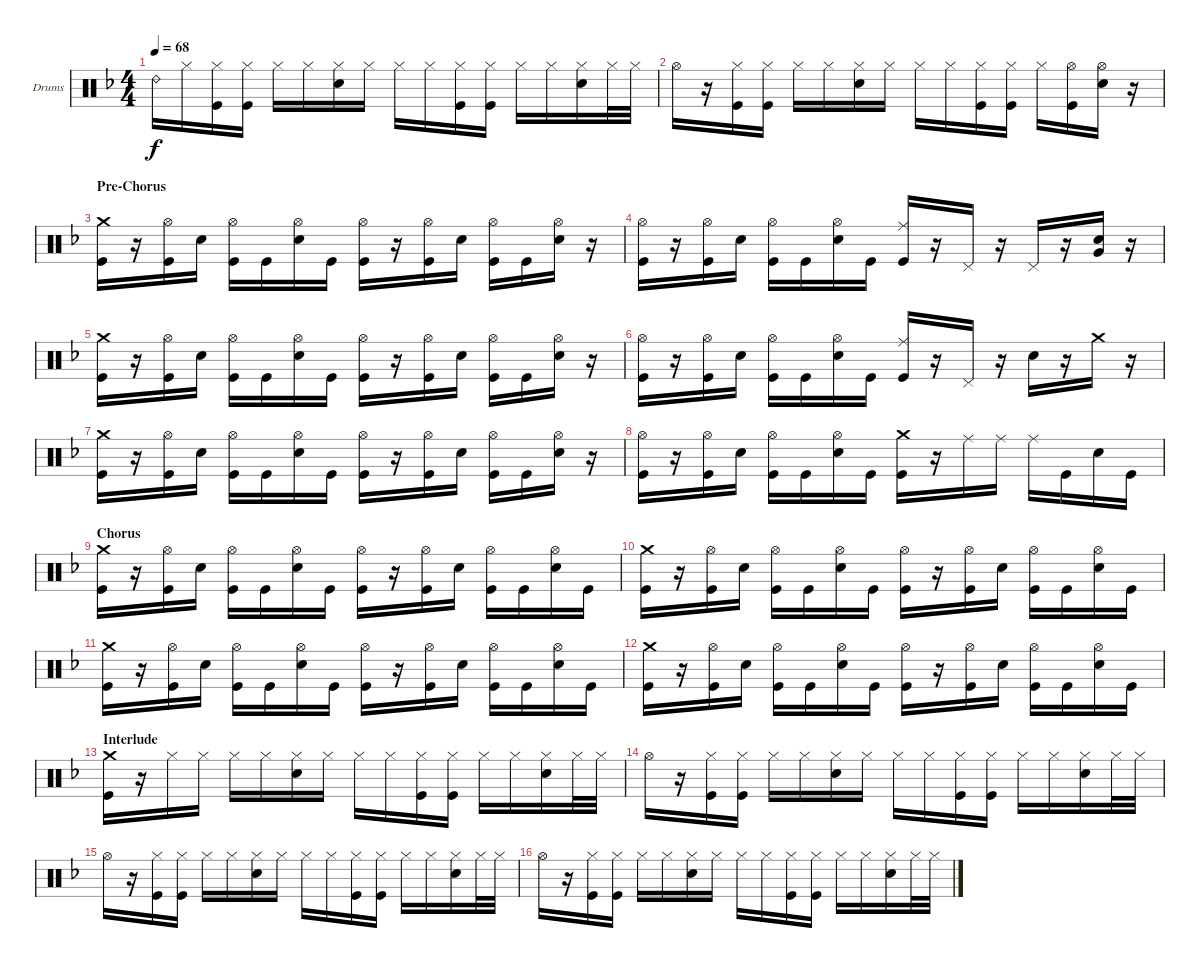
\defaultSystemsLayout 4
\bracketExtendMode groupsimilarinstruments
\firstSystemTrackNameOrientation horizontal
\otherSystemsTrackNameOrientation horizontal
\track ("Drumkit" "Drums") {instrument percussion}
\staff {score}
\articulation defaults
\ts (4 4)
\tempo 68
\clef neutral
\ks f "Ride (bell) 2".16{dy f} "Hi-Hat (closed)".16
("Hi-Hat (closed)" "Kick (hit)").16 ("Hi-Hat (closed)" "Kick (hit)").16 "Hi-Hat (closed)".16 "Hi-Hat (closed)".16 ("Hi-Hat (closed)" "Snare (hit) 2").16 "Hi-Hat (closed)".16 "Hi-Hat (closed)".16 "Hi-Hat (closed)".16 ("Hi-Hat (closed)" "Kick (hit)").16 ("Hi-Hat (closed)" "Kick (hit)").16 "Hi-Hat (closed)".16 "Hi-Hat (closed)".16 ("Hi-Hat (closed)" "Snare (hit) 2").16 "Hi-Hat (closed)".32 "Hi-Hat (closed)".32 |
"Hi-Hat (open)".16 r.16 ("Hi-Hat (closed)" "Kick (hit)").16 ("Hi-Hat (closed)" "Kick (hit)").16 "Hi-Hat (closed)".16 "Hi-Hat (closed)".16 ("Hi-Hat (closed)" "Snare (hit) 2").16 "Hi-Hat (closed)".16 "Hi-Hat (closed)".16 "Hi-Hat (closed)".16 ("Hi-Hat (closed)" "Kick (hit)").16 ("Hi-Hat (closed)" "Kick (hit)").16 "Hi-Hat (closed)".16 ("Hi-Hat (open)" "Kick (hit)").16 ("Hi-Hat (open)" "Snare (hit) 2").16 r.16 |
\section ("" "Pre-Chorus")
("Crash medium (hit)" "Kick (hit)").16 r.16 ("Hi-Hat (open)" "Kick (hit)").16 "Snare (hit) 2".16 ("Hi-Hat (open)" "Kick (hit)").16 "Kick (hit)".16 ("Hi-Hat (open)" "Snare (hit) 2").16 "Kick (hit)".16 ("Hi-Hat (open)" "Kick (hit)").16 r.16 ("Hi-Hat (open)" "Kick (hit)").16 "Snare (hit) 2".16 ("Hi-Hat (open)" "Kick (hit)").16 "Kick (hit)".16 ("Hi-Hat (open)" "Snare (hit) 2").16 r.16 |
("Hi-Hat (open)" "Kick (hit)").16 r.16 ("Hi-Hat (open)" "Kick (hit)").16 "Snare (hit) 2".16 ("Hi-Hat (open)" "Kick (hit)").16 "Kick (hit)".16 ("Hi-Hat (open)" "Snare (hit) 2").16 "Kick (hit)".16 ("Ride (middle)" "Kick (hit)").16 r.16 "Pedal Hi-Hat (hit)".16 r.16 "Pedal Hi-Hat (hit)".16 r.16 ("Snare (hit) 2" "Very Low Tom (hit)").16 r.16 |
("Crash medium (hit)" "Kick (hit)").16 r.16 ("Hi-Hat (open)" "Kick (hit)").16 "Snare (hit) 2".16 ("Hi-Hat (open)" "Kick (hit)").16 "Kick (hit)".16 ("Hi-Hat (open)" "Snare (hit) 2").16 "Kick (hit)".16 ("Hi-Hat (open)" "Kick (hit)").16 r.16 ("Hi-Hat (open)" "Kick (hit)").16 "Snare (hit) 2".16 ("Hi-Hat (open)" "Kick (hit)").16 "Kick (hit)".16 ("Hi-Hat (open)" "Snare (hit) 2").16 r.16 |
("Hi-Hat (open)" "Kick (hit)").16 r.16 ("Hi-Hat (open)" "Kick (hit)").16 "Snare (hit) 2".16 ("Hi-Hat (open)" "Kick (hit)").16 "Kick (hit)".16 ("Hi-Hat (open)" "Snare (hit) 2").16 "Kick (hit)".16 ("Ride (middle)" "Kick (hit)").16 r.16 "Pedal Hi-Hat (hit)".16 r.16 "Snare (hit) 2".16 r.16 "Crash medium (hit)".16 r.16 |
("Crash medium (hit)" "Kick (hit)").16 r.16 ("Hi-Hat (open)" "Kick (hit)").16 "Snare (hit) 2".16 ("Hi-Hat (open)" "Kick (hit)").16 "Kick (hit)".16 ("Hi-Hat (open)" "Snare (hit) 2").16 "Kick (hit)".16 ("Hi-Hat (open)" "Kick (hit)").16 r.16 ("Hi-Hat (open)" "Kick (hit)").16 "Snare (hit) 2".16 ("Hi-Hat (open)" "Kick (hit)").16 "Kick (hit)".16 ("Hi-Hat (open)" "Snare (hit) 2").16 r.16 |
("Hi-Hat (open)" "Kick (hit)").16 r.16 ("Hi-Hat (open)" "Kick (hit)").16 "Snare (hit) 2".16 ("Hi-Hat (open)" "Kick (hit)").16 "Kick (hit)".16 ("Hi-Hat (open)" "Snare (hit) 2").16 "Kick (hit)".16 ("Crash medium (hit)" "Kick (hit)").16 r.16 "Ride (middle)".16 "Ride (middle)".16 "Ride (middle)".16 "Kick (hit)".16 "Snare (hit) 2".16 "Kick (hit)".16 |
\section ("" "Chorus")
("Crash medium (hit)" "Kick (hit)").16 r.16 ("Hi-Hat (open)" "Kick (hit)").16 "Snare (hit) 2".16 ("Hi-Hat (open)" "Kick (hit)").16 "Kick (hit)".16 ("Hi-Hat (open)" "Snare (hit) 2").16 "Kick (hit)".16 ("Hi-Hat (open)" "Kick (hit)").16 r.16 ("Hi-Hat (open)" "Kick (hit)").16 "Snare (hit) 2".16 ("Hi-Hat (open)" "Kick (hit)").16 "Kick (hit)".16 ("Hi-Hat (open)" "Snare (hit) 2").16 "Kick (hit)".16 |
("Crash medium (hit)" "Kick (hit)").16 r.16 ("Hi-Hat (open)" "Kick (hit)").16 "Snare (hit) 2".16 ("Hi-Hat (open)" "Kick (hit)").16 "Kick (hit)".16 ("Hi-Hat (open)" "Snare (hit) 2").16 "Kick (hit)".16 ("Hi-Hat (open)" "Kick (hit)").16 r.16 ("Hi-Hat (open)" "Kick (hit)").16 "Snare (hit) 2".16 ("Hi-Hat (open)" "Kick (hit)").16 "Kick (hit)".16 ("Hi-Hat (open)" "Snare (hit) 2").16 "Kick (hit)".16 |
("Crash medium (hit)" "Kick (hit)").16 r.16 ("Hi-Hat (open)" "Kick (hit)").16 "Snare (hit) 2".16 ("Hi-Hat (open)" "Kick (hit)").16 "Kick (hit)".16 ("Hi-Hat (open)" "Snare (hit) 2").16 "Kick (hit)".16 ("Hi-Hat (open)" "Kick (hit)").16 r.16 ("Hi-Hat (open)" "Kick (hit)").16 "Snare (hit) 2".16 ("Hi-Hat (open)" "Kick (hit)").16 "Kick (hit)".16 ("Hi-Hat (open)" "Snare (hit) 2").16 "Kick (hit)".16 |
("Crash medium (hit)" "Kick (hit)").16 r.16 ("Hi-Hat (open)" "Kick (hit)").16 "Snare (hit) 2".16 ("Hi-Hat (open)" "Kick (hit)").16 "Kick (hit)".16 ("Hi-Hat (open)" "Snare (hit) 2").16 "Kick (hit)".16 ("Hi-Hat (open)" "Kick (hit)").16 r.16 ("Hi-Hat (open)" "Kick (hit)").16 "Snare (hit) 2".16 ("Hi-Hat (open)" "Kick (hit)").16 "Kick (hit)".16 ("Hi-Hat (open)" "Snare (hit) 2").16 "Kick (hit)".16 |
\section ("" "Interlude")
("Crash medium (hit)" "Kick (hit)").16 r.16 "Hi-Hat (closed)".16 "Hi-Hat (closed)".16 "Hi-Hat (closed)".16 "Hi-Hat (closed)".16 ("Hi-Hat (closed)" "Snare (hit) 2").16 "Hi-Hat (closed)".16 "Hi-Hat (closed)".16 "Hi-Hat (closed)".16 ("Hi-Hat (closed)" "Kick (hit)").16 ("Hi-Hat (closed)" "Kick (hit)").16 "Hi-Hat (closed)".16 "Hi-Hat (closed)".16 ("Hi-Hat (closed)" "Snare (hit) 2").16 "Hi-Hat (closed)".32 "Hi-Hat (closed)".32 |
"Hi-Hat (open)".16 r.16 ("Hi-Hat (closed)" "Kick (hit)").16 ("Hi-Hat (closed)" "Kick (hit)").16 "Hi-Hat (closed)".16 "Hi-Hat (closed)".16 ("Hi-Hat (closed)" "Snare (hit) 2").16 "Hi-Hat (closed)".16 "Hi-Hat (closed)".16 "Hi-Hat (closed)".16 ("Hi-Hat (closed)" "Kick (hit)").16 ("Hi-Hat (closed)" "Kick (hit)").16 "Hi-Hat (closed)".16 "Hi-Hat (closed)".16 ("Hi-Hat (closed)" "Snare (hit) 2").16 "Hi-Hat (closed)".32 "Hi-Hat (closed)".32 |
"Hi-Hat (open)".16 r.16 ("Hi-Hat (closed)" "Kick (hit)").16 ("Hi-Hat (closed)" "Kick (hit)").16 "Hi-Hat (closed)".16 "Hi-Hat (closed)".16 ("Hi-Hat (closed)" "Snare (hit) 2").16 "Hi-Hat (closed)".16 "Hi-Hat (closed)".16 "Hi-Hat (closed)".16 ("Hi-Hat (closed)" "Kick (hit)").16 ("Hi-Hat (closed)" "Kick (hit)").16 "Hi-Hat (closed)".16 "Hi-Hat (closed)".16 ("Hi-Hat (closed)" "Snare (hit) 2").16 "Hi-Hat (closed)".32 "Hi-Hat (closed)".32 |
"Hi-Hat (open)".16 r.16 ("Hi-Hat (closed)" "Kick (hit)").16 ("Hi-Hat (closed)" "Kick (hit)").16 "Hi-Hat (closed)".16 "Hi-Hat (closed)".16 ("Hi-Hat (closed)" "Snare (hit) 2").16 "Hi-Hat (closed)".16 "Hi-Hat (closed)".16 "Hi-Hat (closed)".16 ("Hi-Hat (closed)" "Kick (hit)").16 ("Hi-Hat (closed)" "Kick (hit)").16 "Hi-Hat (closed)".16 "Hi-Hat (closed)".16 ("Hi-Hat (closed)" "Snare (hit) 2").16 "Hi-Hat (closed)".32 "Hi-Hat (closed)".32
